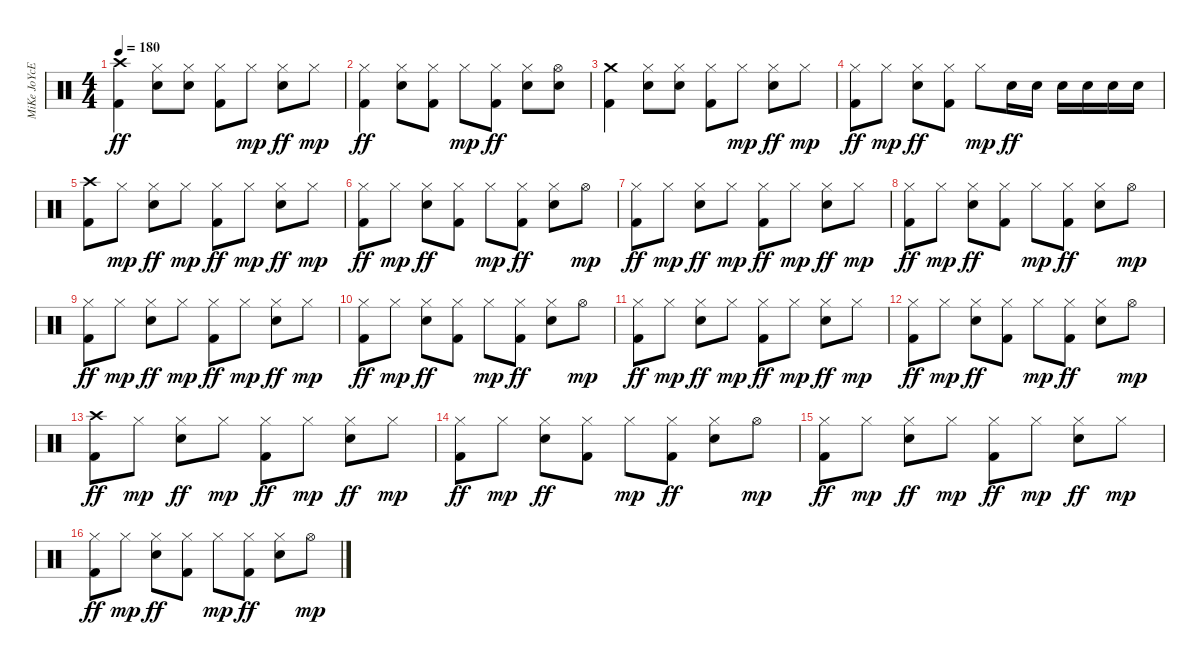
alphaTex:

\track ("MiKe JoYcE" "MiKe JoYcE") {instrument percussion}
\staff {score}
\articulation defaults
\ts (4 4)
\tempo 180
\clef neutral
\ks c
("Crash high (hit)" "Kick (hit) 2").4{dy ff} ("Hi-Hat (closed)" "Electric Snare (hit)").8 ("Hi-Hat (closed)" "Electric Snare (hit)").8 ("Hi-Hat (closed)" "Kick (hit) 2").8 "Hi-Hat (closed)".8{dy mp} ("Hi-Hat (closed)" "Electric Snare (hit)").8{dy ff} "Hi-Hat (closed)".8{dy mp} |
("Hi-Hat (closed)" "Kick (hit) 2").4{dy ff} ("Hi-Hat (closed)" "Electric Snare (hit)").8 ("Hi-Hat (closed)" "Kick (hit) 2").8 "Hi-Hat (closed)".8{dy mp} ("Hi-Hat (closed)" "Kick (hit) 2").8{dy ff} ("Hi-Hat (closed)" "Electric Snare (hit)").8 ("Hi-Hat (open)" "Electric Snare (hit)").8 |
("Crash medium (hit)" "Kick (hit) 2").4 ("Hi-Hat (closed)" "Electric Snare (hit)").8 ("Hi-Hat (closed)" "Electric Snare (hit)").8 ("Hi-Hat (closed)" "Kick (hit) 2").8 "Hi-Hat (closed)".8{dy mp} ("Hi-Hat (closed)" "Electric Snare (hit)").8{dy ff} "Hi-Hat (closed)".8{dy mp} |
("Hi-Hat (closed)" "Kick (hit) 2").8{dy ff} "Hi-Hat (closed)".8{dy mp} ("Hi-Hat (closed)" "Electric Snare (hit)").8{dy ff} ("Hi-Hat (closed)" "Kick (hit) 2").8 "Hi-Hat (closed)".8{dy mp} "Electric Snare (hit)".16{dy ff} "Electric Snare (hit)".16 "Electric Snare (hit)".16 "Electric Snare (hit)".16 "Electric Snare (hit)".16 "Electric Snare (hit)".16 |
("Crash high (hit)" "Kick (hit) 2").8 "Hi-Hat (closed)".8{dy mp} ("Hi-Hat (closed)" "Electric Snare (hit)").8{dy ff} "Hi-Hat (closed)".8{dy mp} ("Hi-Hat (closed)" "Kick (hit) 2").8{dy ff} "Hi-Hat (closed)".8{dy mp} ("Hi-Hat (closed)" "Electric Snare (hit)").8{dy ff} "Hi-Hat (closed)".8{dy mp} |
("Hi-Hat (closed)" "Kick (hit) 2").8{dy ff} "Hi-Hat (closed)".8{dy mp} ("Hi-Hat (closed)" "Electric Snare (hit)").8{dy ff} ("Hi-Hat (closed)" "Kick (hit) 2").8 "Hi-Hat (closed)".8{dy mp} ("Hi-Hat (closed)" "Kick (hit) 2").8{dy ff} ("Hi-Hat (closed)" "Electric Snare (hit)").8 "Hi-Hat (open)".8{dy mp} |
("Hi-Hat (closed)" "Kick (hit) 2").8{dy ff} "Hi-Hat (closed)".8{dy mp} ("Hi-Hat (closed)" "Electric Snare (hit)").8{dy ff} "Hi-Hat (closed)".8{dy mp} ("Hi-Hat (closed)" "Kick (hit) 2").8{dy ff} "Hi-Hat (closed)".8{dy mp} ("Hi-Hat (closed)" "Electric Snare (hit)").8{dy ff} "Hi-Hat (closed)".8{dy mp} |
("Hi-Hat (closed)" "Kick (hit) 2").8{dy ff} "Hi-Hat (closed)".8{dy mp} ("Hi-Hat (closed)" "Electric Snare (hit)").8{dy ff} ("Hi-Hat (closed)" "Kick (hit) 2").8 "Hi-Hat (closed)".8{dy mp} ("Hi-Hat (closed)" "Kick (hit) 2").8{dy ff} ("Hi-Hat (closed)" "Electric Snare (hit)").8 "Hi-Hat (open)".8{dy mp} |
("Hi-Hat (closed)" "Kick (hit) 2").8{dy ff} "Hi-Hat (closed)".8{dy mp} ("Hi-Hat (closed)" "Electric Snare (hit)").8{dy ff} "Hi-Hat (closed)".8{dy mp} ("Hi-Hat (closed)" "Kick (hit) 2").8{dy ff} "Hi-Hat (closed)".8{dy mp} ("Hi-Hat (closed)" "Electric Snare (hit)").8{dy ff} "Hi-Hat (closed)".8{dy mp} |
("Hi-Hat (closed)" "Kick (hit) 2").8{dy ff} "Hi-Hat (closed)".8{dy mp} ("Hi-Hat (closed)" "Electric Snare (hit)").8{dy ff} ("Hi-Hat (closed)" "Kick (hit) 2").8 "Hi-Hat (closed)".8{dy mp} ("Hi-Hat (closed)" "Kick (hit) 2").8{dy ff} ("Hi-Hat (closed)" "Electric Snare (hit)").8 "Hi-Hat (open)".8{dy mp} |
("Hi-Hat (closed)" "Kick (hit) 2").8{dy ff} "Hi-Hat (closed)".8{dy mp} ("Hi-Hat (closed)" "Electric Snare (hit)").8{dy ff} "Hi-Hat (closed)".8{dy mp} ("Hi-Hat (closed)" "Kick (hit) 2").8{dy ff} "Hi-Hat (closed)".8{dy mp} ("Hi-Hat (closed)" "Electric Snare (hit)").8{dy ff} "Hi-Hat (closed)".8{dy mp} |
("Hi-Hat (closed)" "Kick (hit) 2").8{dy ff} "Hi-Hat (closed)".8{dy mp} ("Hi-Hat (closed)" "Electric Snare (hit)").8{dy ff} ("Hi-Hat (closed)" "Kick (hit) 2").8 "Hi-Hat (closed)".8{dy mp} ("Hi-Hat (closed)" "Kick (hit) 2").8{dy ff} ("Hi-Hat (closed)" "Electric Snare (hit)").8 "Hi-Hat (open)".8{dy mp} |
("Crash high (hit)" "Kick (hit) 2").8{dy ff} "Hi-Hat (closed)".8{dy mp} ("Hi-Hat (closed)" "Electric Snare (hit)").8{dy ff} "Hi-Hat (closed)".8{dy mp} ("Hi-Hat (closed)" "Kick (hit) 2").8{dy ff} "Hi-Hat (closed)".8{dy mp} ("Hi-Hat (closed)" "Electric Snare (hit)").8{dy ff} "Hi-Hat (closed)".8{dy mp} |
("Hi-Hat (closed)" "Kick (hit) 2").8{dy ff} "Hi-Hat (closed)".8{dy mp} ("Hi-Hat (closed)" "Electric Snare (hit)").8{dy ff} ("Hi-Hat (closed)" "Kick (hit) 2").8 "Hi-Hat (closed)".8{dy mp} ("Hi-Hat (closed)" "Kick (hit) 2").8{dy ff} ("Hi-Hat (closed)" "Electric Snare (hit)").8 "Hi-Hat (open)".8{dy mp} |
("Hi-Hat (closed)" "Kick (hit) 2").8{dy ff} "Hi-Hat (closed)".8{dy mp} ("Hi-Hat (closed)" "Electric Snare (hit)").8{dy ff} "Hi-Hat (closed)".8{dy mp} ("Hi-Hat (closed)" "Kick (hit) 2").8{dy ff} "Hi-Hat (closed)".8{dy mp} ("Hi-Hat (closed)" "Electric Snare (hit)").8{dy ff} "Hi-Hat (closed)".8{dy mp} |
("Hi-Hat (closed)" "Kick (hit) 2").8{dy ff} "Hi-Hat (closed)".8{dy mp} ("Hi-Hat (closed)" "Electric Snare (hit)").8{dy ff} ("Hi-Hat (closed)" "Kick (hit) 2").8 "Hi-Hat (closed)".8{dy mp} ("Hi-Hat (closed)" "Kick (hit) 2").8{dy ff} ("Hi-Hat (closed)" "Electric Snare (hit)").8 "Hi-Hat (open)".8{dy mp}
